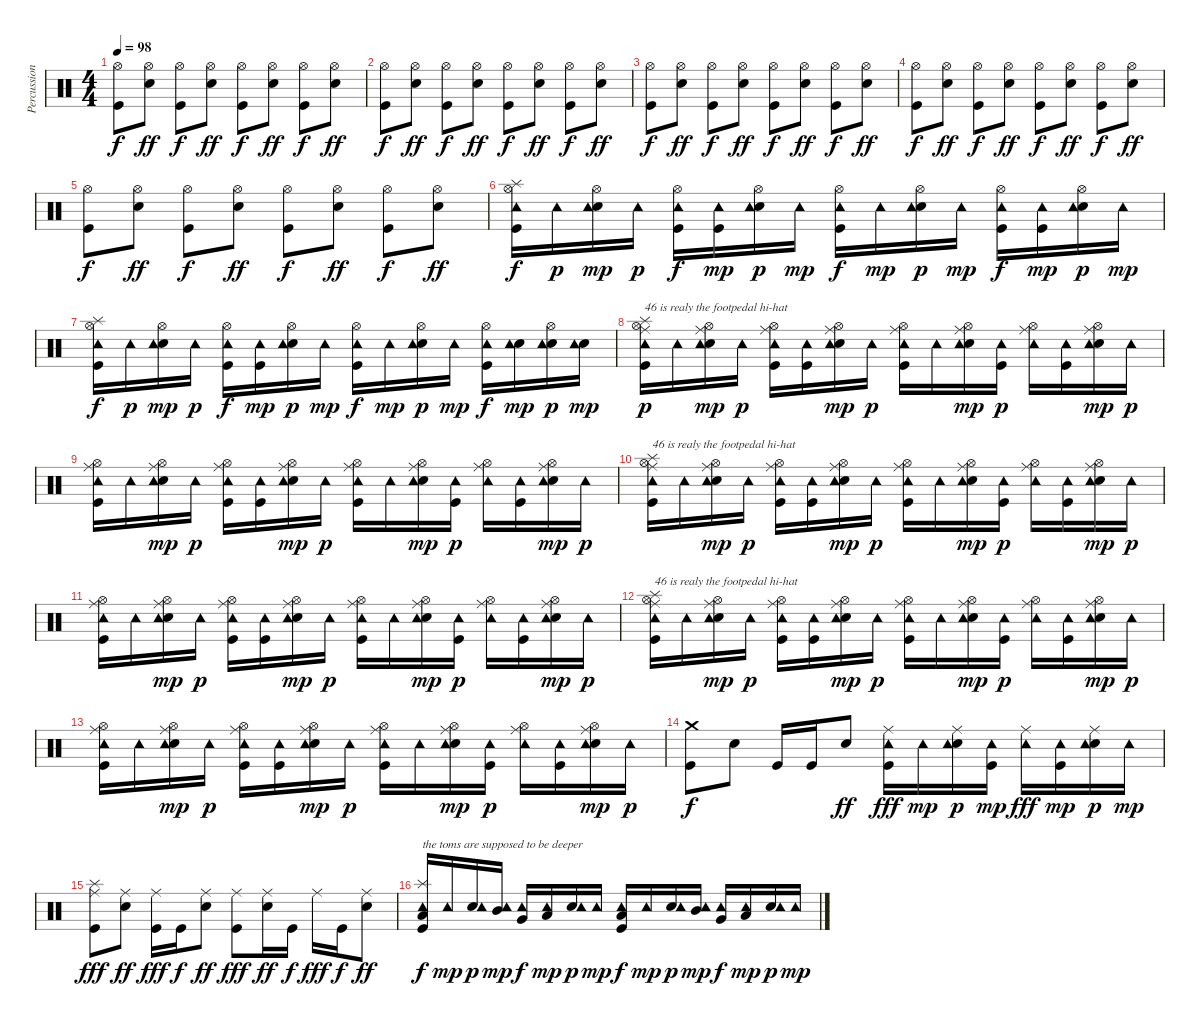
\track ("Percussion" "Percussion") {instrument percussion}
\staff {score}
\articulation defaults
\ts (4 4)
\tempo 98
\clef neutral
\ks c
("Hi-Hat (open)" "Kick (hit)").8{dy f} ("Hi-Hat (open)" "Snare (hit) 2").8{dy ff} ("Hi-Hat (open)" "Kick (hit)").8{dy f} ("Hi-Hat (open)" "Snare (hit) 2").8{dy ff} ("Hi-Hat (open)" "Kick (hit)").8{dy f} ("Hi-Hat (open)" "Snare (hit) 2").8{dy ff} ("Hi-Hat (open)" "Kick (hit)").8{dy f} ("Hi-Hat (open)" "Snare (hit) 2").8{dy ff} |
("Hi-Hat (open)" "Kick (hit)").8{dy f} ("Hi-Hat (open)" "Snare (hit) 2").8{dy ff} ("Hi-Hat (open)" "Kick (hit)").8{dy f} ("Hi-Hat (open)" "Snare (hit) 2").8{dy ff} ("Hi-Hat (open)" "Kick (hit)").8{dy f} ("Hi-Hat (open)" "Snare (hit) 2").8{dy ff} ("Hi-Hat (open)" "Kick (hit)").8{dy f} ("Hi-Hat (open)" "Snare (hit) 2").8{dy ff} |
("Hi-Hat (open)" "Kick (hit)").8{dy f} ("Hi-Hat (open)" "Snare (hit) 2").8{dy ff} ("Hi-Hat (open)" "Kick (hit)").8{dy f} ("Hi-Hat (open)" "Snare (hit) 2").8{dy ff} ("Hi-Hat (open)" "Kick (hit)").8{dy f} ("Hi-Hat (open)" "Snare (hit) 2").8{dy ff} ("Hi-Hat (open)" "Kick (hit)").8{dy f} ("Hi-Hat (open)" "Snare (hit) 2").8{dy ff} |
("Hi-Hat (open)" "Kick (hit)").8{dy f} ("Hi-Hat (open)" "Snare (hit) 2").8{dy ff} ("Hi-Hat (open)" "Kick (hit)").8{dy f} ("Hi-Hat (open)" "Snare (hit) 2").8{dy ff} ("Hi-Hat (open)" "Kick (hit)").8{dy f} ("Hi-Hat (open)" "Snare (hit) 2").8{dy ff} ("Hi-Hat (open)" "Kick (hit)").8{dy f} ("Hi-Hat (open)" "Snare (hit) 2").8{dy ff} |
("Hi-Hat (open)" "Kick (hit)").8{dy f} ("Hi-Hat (open)" "Snare (hit) 2").8{dy ff} ("Hi-Hat (open)" "Kick (hit)").8{dy f} ("Hi-Hat (open)" "Snare (hit) 2").8{dy ff} ("Hi-Hat (open)" "Kick (hit)").8{dy f} ("Hi-Hat (open)" "Snare (hit) 2").8{dy ff} ("Hi-Hat (open)" "Kick (hit)").8{dy f} ("Hi-Hat (open)" "Snare (hit) 2").8{dy ff} |
("Splash (hit)" "Hi-Hat (open)" "Kick (hit)" "Tambourine (hit)").16{dy f} "Tambourine (hit)".16{dy p} ("Hi-Hat (open)" "Snare (hit) 2" "Tambourine (hit)").16{dy mp} "Tambourine (hit)".16{dy p} ("Hi-Hat (open)" "Kick (hit)" "Tambourine (hit)").16{dy f} ("Kick (hit)" "Tambourine (hit)").16{dy mp} ("Hi-Hat (open)" "Snare (hit) 2" "Tambourine (hit)").16{dy p} "Tambourine (hit)".16{dy mp} ("Hi-Hat (open)" "Kick (hit)" "Tambourine (hit)").16{dy f} "Tambourine (hit)".16{dy mp} ("Hi-Hat (open)" "Snare (hit) 2" "Tambourine (hit)").16{dy p} "Tambourine (hit)".16{dy mp} ("Hi-Hat (open)" "Kick (hit)" "Tambourine (hit)").16{dy f} ("Kick (hit)" "Tambourine (hit)").16{dy mp} ("Hi-Hat (open)" "Snare (hit) 2" "Tambourine (hit)").16{dy p} "Tambourine (hit)".16{dy mp} |
("Splash (hit)" "Hi-Hat (open)" "Kick (hit)" "Tambourine (hit)").16{dy f} "Tambourine (hit)".16{dy p} ("Hi-Hat (open)" "Snare (hit) 2" "Tambourine (hit)").16{dy mp} "Tambourine (hit)".16{dy p} ("Hi-Hat (open)" "Kick (hit)" "Tambourine (hit)").16{dy f} ("Kick (hit)" "Tambourine (hit)").16{dy mp} ("Hi-Hat (open)" "Snare (hit) 2" "Tambourine (hit)").16{dy p} "Tambourine (hit)".16{dy mp} ("Hi-Hat (open)" "Kick (hit)" "Tambourine (hit)").16{dy f} "Tambourine (hit)".16{dy mp} ("Hi-Hat (open)" "Snare (hit) 2" "Tambourine (hit)").16{dy p} "Tambourine (hit)".16{dy mp} ("Hi-Hat (open)" "Kick (hit)" "Tambourine (hit)").16{dy f} ("Snare (hit) 2" "Tambourine (hit)").16{dy mp} ("Hi-Hat (open)" "Snare (hit) 2" "Tambourine (hit)").16{dy p} ("Snare (hit) 2" "Tambourine (hit)").16{dy mp} |
("Ride (middle)" "Hi-Hat (open)" "Kick (hit)" "Tambourine (hit)" "Splash (hit)").16{txt "46 is realy the footpedal hi-hat" dy p} "Tambourine (hit)".16 ("Ride (middle)" "Hi-Hat (open)" "Snare (hit) 2" "Tambourine (hit)").16{dy mp} "Tambourine (hit)".16{dy p} ("Ride (middle)" "Hi-Hat (open)" "Kick (hit)" "Tambourine (hit)").16 ("Kick (hit)" "Tambourine (hit)").16 ("Ride (middle)" "Hi-Hat (open)" "Snare (hit) 2" "Tambourine (hit)").16{dy mp} "Tambourine (hit)".16{dy p} ("Ride (middle)" "Hi-Hat (open)" "Kick (hit)" "Tambourine (hit)").16 "Tambourine (hit)".16 ("Ride (middle)" "Hi-Hat (open)" "Snare (hit) 2" "Tambourine (hit)").16{dy mp} ("Kick (hit)" "Tambourine (hit)").16{dy p} ("Ride (middle)" "Hi-Hat (open)" "Tambourine (hit)").16 ("Kick (hit)" "Tambourine (hit)").16 ("Ride (middle)" "Hi-Hat (open)" "Snare (hit) 2" "Tambourine (hit)").16{dy mp} "Tambourine (hit)".16{dy p} |
("Ride (middle)" "Hi-Hat (open)" "Kick (hit)" "Tambourine (hit)").16 "Tambourine (hit)".16 ("Ride (middle)" "Hi-Hat (open)" "Snare (hit) 2" "Tambourine (hit)").16{dy mp} "Tambourine (hit)".16{dy p} ("Ride (middle)" "Hi-Hat (open)" "Kick (hit)" "Tambourine (hit)").16 ("Kick (hit)" "Tambourine (hit)").16 ("Ride (middle)" "Hi-Hat (open)" "Snare (hit) 2" "Tambourine (hit)").16{dy mp} "Tambourine (hit)".16{dy p} ("Ride (middle)" "Hi-Hat (open)" "Kick (hit)" "Tambourine (hit)").16 "Tambourine (hit)".16 ("Ride (middle)" "Hi-Hat (open)" "Snare (hit) 2" "Tambourine (hit)").16{dy mp} ("Kick (hit)" "Tambourine (hit)").16{dy p} ("Ride (middle)" "Hi-Hat (open)" "Tambourine (hit)").16 ("Kick (hit)" "Tambourine (hit)").16 ("Ride (middle)" "Hi-Hat (open)" "Snare (hit) 2" "Tambourine (hit)").16{dy mp} "Tambourine (hit)".16{dy p} |
("Ride (middle)" "Hi-Hat (open)" "Kick (hit)" "Tambourine (hit)" "Splash (hit)").16{txt "46 is realy the footpedal hi-hat"} "Tambourine (hit)".16 ("Ride (middle)" "Hi-Hat (open)" "Snare (hit) 2" "Tambourine (hit)").16{dy mp} "Tambourine (hit)".16{dy p} ("Ride (middle)" "Hi-Hat (open)" "Kick (hit)" "Tambourine (hit)").16 ("Kick (hit)" "Tambourine (hit)").16 ("Ride (middle)" "Hi-Hat (open)" "Snare (hit) 2" "Tambourine (hit)").16{dy mp} "Tambourine (hit)".16{dy p} ("Ride (middle)" "Hi-Hat (open)" "Kick (hit)" "Tambourine (hit)").16 "Tambourine (hit)".16 ("Ride (middle)" "Hi-Hat (open)" "Snare (hit) 2" "Tambourine (hit)").16{dy mp} ("Kick (hit)" "Tambourine (hit)").16{dy p} ("Ride (middle)" "Hi-Hat (open)" "Tambourine (hit)").16 ("Kick (hit)" "Tambourine (hit)").16 ("Ride (middle)" "Hi-Hat (open)" "Snare (hit) 2" "Tambourine (hit)").16{dy mp} "Tambourine (hit)".16{dy p} |
("Ride (middle)" "Hi-Hat (open)" "Kick (hit)" "Tambourine (hit)").16 "Tambourine (hit)".16 ("Ride (middle)" "Hi-Hat (open)" "Snare (hit) 2" "Tambourine (hit)").16{dy mp} "Tambourine (hit)".16{dy p} ("Ride (middle)" "Hi-Hat (open)" "Kick (hit)" "Tambourine (hit)").16 ("Kick (hit)" "Tambourine (hit)").16 ("Ride (middle)" "Hi-Hat (open)" "Snare (hit) 2" "Tambourine (hit)").16{dy mp} "Tambourine (hit)".16{dy p} ("Ride (middle)" "Hi-Hat (open)" "Kick (hit)" "Tambourine (hit)").16 "Tambourine (hit)".16 ("Ride (middle)" "Hi-Hat (open)" "Snare (hit) 2" "Tambourine (hit)").16{dy mp} ("Kick (hit)" "Tambourine (hit)").16{dy p} ("Ride (middle)" "Hi-Hat (open)" "Tambourine (hit)").16 ("Kick (hit)" "Tambourine (hit)").16 ("Ride (middle)" "Hi-Hat (open)" "Snare (hit) 2" "Tambourine (hit)").16{dy mp} "Tambourine (hit)".16{dy p} |
("Ride (middle)" "Hi-Hat (open)" "Kick (hit)" "Tambourine (hit)" "Splash (hit)").16{txt "46 is realy the footpedal hi-hat"} "Tambourine (hit)".16 ("Ride (middle)" "Hi-Hat (open)" "Snare (hit) 2" "Tambourine (hit)").16{dy mp} "Tambourine (hit)".16{dy p} ("Ride (middle)" "Hi-Hat (open)" "Kick (hit)" "Tambourine (hit)").16 ("Kick (hit)" "Tambourine (hit)").16 ("Ride (middle)" "Hi-Hat (open)" "Snare (hit) 2" "Tambourine (hit)").16{dy mp} "Tambourine (hit)".16{dy p} ("Ride (middle)" "Hi-Hat (open)" "Kick (hit)" "Tambourine (hit)").16 "Tambourine (hit)".16 ("Ride (middle)" "Hi-Hat (open)" "Snare (hit) 2" "Tambourine (hit)").16{dy mp} ("Kick (hit)" "Tambourine (hit)").16{dy p} ("Ride (middle)" "Hi-Hat (open)" "Tambourine (hit)").16 ("Kick (hit)" "Tambourine (hit)").16 ("Ride (middle)" "Hi-Hat (open)" "Snare (hit) 2" "Tambourine (hit)").16{dy mp} "Tambourine (hit)".16{dy p} |
("Ride (middle)" "Hi-Hat (open)" "Kick (hit)" "Tambourine (hit)").16 "Tambourine (hit)".16 ("Ride (middle)" "Hi-Hat (open)" "Snare (hit) 2" "Tambourine (hit)").16{dy mp} "Tambourine (hit)".16{dy p} ("Ride (middle)" "Hi-Hat (open)" "Kick (hit)" "Tambourine (hit)").16 ("Kick (hit)" "Tambourine (hit)").16 ("Ride (middle)" "Hi-Hat (open)" "Snare (hit) 2" "Tambourine (hit)").16{dy mp} "Tambourine (hit)".16{dy p} ("Ride (middle)" "Hi-Hat (open)" "Kick (hit)" "Tambourine (hit)").16 "Tambourine (hit)".16 ("Ride (middle)" "Hi-Hat (open)" "Snare (hit) 2" "Tambourine (hit)").16{dy mp} ("Kick (hit)" "Tambourine (hit)").16{dy p} ("Ride (middle)" "Hi-Hat (open)" "Tambourine (hit)").16 ("Kick (hit)" "Tambourine (hit)").16 ("Ride (middle)" "Hi-Hat (open)" "Snare (hit) 2" "Tambourine (hit)").16{dy mp} "Tambourine (hit)".16{dy p} |
("Crash medium (hit)" "Kick (hit)").8{dy f} "Snare (hit) 2".8 "Kick (hit)".16 "Kick (hit)".16 "Snare (hit) 2".8{dy ff} ("Ride (middle)" "Kick (hit)" "Tambourine (hit)").16{dy fff} "Tambourine (hit)".16{dy mp} ("Ride (middle)" "Snare (hit) 2" "Tambourine (hit)").16{dy p} ("Kick (hit)" "Tambourine (hit)").16{dy mp} ("Ride (middle)" "Tambourine (hit)").16{dy fff} ("Kick (hit)" "Tambourine (hit)").16{dy mp} ("Ride (middle)" "Snare (hit) 2" "Tambourine (hit)").16{dy p} "Tambourine (hit)".16{dy mp} |
("Ride (middle)" "Kick (hit)" "Splash (hit)").8{dy fff} ("Ride (middle)" "Snare (hit) 2").8{dy ff} ("Ride (middle)" "Kick (hit)").16{dy fff} "Kick (hit)".16{dy f} ("Ride (middle)" "Snare (hit) 2").8{dy ff} ("Ride (middle)" "Kick (hit)").8{dy fff} ("Ride (middle)" "Snare (hit) 2").16{dy ff} "Kick (hit)".16{dy f} "Ride (middle)".16{dy fff} "Kick (hit)".16{dy f} ("Ride (middle)" "Snare (hit) 2").8{dy ff} |
("Splash (hit)" "Low Floor Tom (hit)" "Kick (hit)" "Tambourine (hit)").16{txt "the toms are supposed to be deeper" dy f} "Tambourine (hit)".16{dy mp} ("Snare (hit) 2" "Tambourine (hit)").16{dy p} ("Mid Tom (hit)" "Tambourine (hit)").16{dy mp} ("Very Low Tom (hit)" "Tambourine (hit)").16{dy f} ("Low Tom (hit)" "Tambourine (hit)").16{dy mp} ("Snare (hit) 2" "Tambourine (hit)").16{dy p} "Tambourine (hit)".16{dy mp} ("Low Floor Tom (hit)" "Kick (hit)" "Tambourine (hit)").16{dy f} "Tambourine (hit)".16{dy mp} ("Snare (hit) 2" "Tambourine (hit)").16{dy p} ("Mid Tom (hit)" "Tambourine (hit)").16{dy mp} ("Very Low Tom (hit)" "Tambourine (hit)").16{dy f} ("Low Tom (hit)" "Tambourine (hit)").16{dy mp} ("Snare (hit) 2" "Tambourine (hit)").16{dy p} "Tambourine (hit)".16{dy mp}
